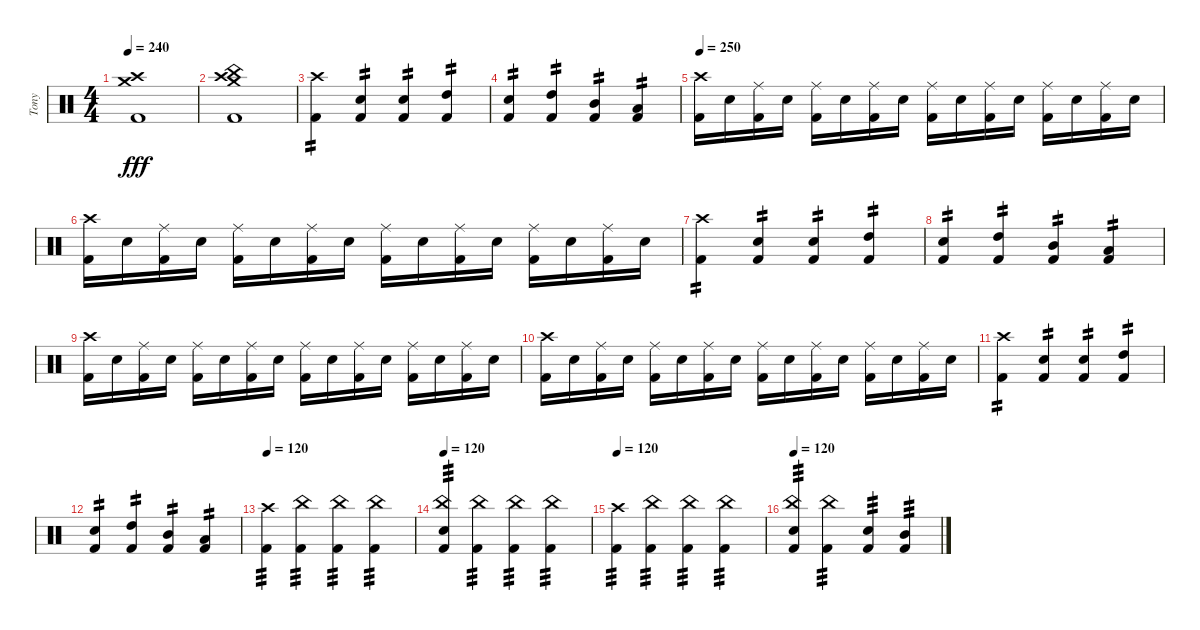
\track ("Tony" "Tony") {instrument percussion}
\staff {score}
\articulation defaults
\ts (4 4)
\tempo 240
\clef neutral
\ks c
("Crash high (hit)" "Crash medium (hit)" "Kick (hit) 2").1{dy fff} |
("Crash high (hit)" "China (hit)" "Crash medium (hit)" "Kick (hit) 2").1 |
("Crash high (hit)" "Kick (hit) 2").4{tp 2} ("Snare (hit) 2" "Kick (hit) 2").4{tp 2} ("Snare (hit) 2" "Kick (hit) 2").4{tp 2} ("High Tom (hit)" "Kick (hit) 2").4{tp 2} |
("Snare (hit) 2" "Kick (hit) 2").4{tp 2} ("High Tom (hit)" "Kick (hit) 2").4{tp 2} ("Mid Tom (hit)" "Kick (hit) 2").4{tp 2} ("Low Tom (hit)" "Kick (hit) 2").4{tp 2} |
\tempo 250
("Crash high (hit)" "Kick (hit) 2").16 "Snare (hit) 2".16 ("Ride (middle)" "Kick (hit) 2").16 "Snare (hit) 2".16 ("Ride (middle)" "Kick (hit) 2").16 "Snare (hit) 2".16 ("Ride (middle)" "Kick (hit) 2").16 "Snare (hit) 2".16 ("Ride (middle)" "Kick (hit) 2").16 "Snare (hit) 2".16 ("Ride (middle)" "Kick (hit) 2").16 "Snare (hit) 2".16 ("Ride (middle)" "Kick (hit) 2").16 "Snare (hit) 2".16 ("Ride (middle)" "Kick (hit) 2").16 "Snare (hit) 2".16 |
("Crash high (hit)" "Kick (hit) 2").16 "Snare (hit) 2".16 ("Ride (middle)" "Kick (hit) 2").16 "Snare (hit) 2".16 ("Ride (middle)" "Kick (hit) 2").16 "Snare (hit) 2".16 ("Ride (middle)" "Kick (hit) 2").16 "Snare (hit) 2".16 ("Ride (middle)" "Kick (hit) 2").16 "Snare (hit) 2".16 ("Ride (middle)" "Kick (hit) 2").16 "Snare (hit) 2".16 ("Ride (middle)" "Kick (hit) 2").16 "Snare (hit) 2".16 ("Ride (middle)" "Kick (hit) 2").16 "Snare (hit) 2".16 |
("Crash high (hit)" "Kick (hit) 2").4{tp 2} ("Snare (hit) 2" "Kick (hit) 2").4{tp 2} ("Snare (hit) 2" "Kick (hit) 2").4{tp 2} ("High Tom (hit)" "Kick (hit) 2").4{tp 2} |
("Snare (hit) 2" "Kick (hit) 2").4{tp 2} ("High Tom (hit)" "Kick (hit) 2").4{tp 2} ("Mid Tom (hit)" "Kick (hit) 2").4{tp 2} ("Low Tom (hit)" "Kick (hit) 2").4{tp 2} |
("Crash high (hit)" "Kick (hit) 2").16 "Snare (hit) 2".16 ("Ride (middle)" "Kick (hit) 2").16 "Snare (hit) 2".16 ("Ride (middle)" "Kick (hit) 2").16 "Snare (hit) 2".16 ("Ride (middle)" "Kick (hit) 2").16 "Snare (hit) 2".16 ("Ride (middle)" "Kick (hit) 2").16 "Snare (hit) 2".16 ("Ride (middle)" "Kick (hit) 2").16 "Snare (hit) 2".16 ("Ride (middle)" "Kick (hit) 2").16 "Snare (hit) 2".16 ("Ride (middle)" "Kick (hit) 2").16 "Snare (hit) 2".16 |
("Crash high (hit)" "Kick (hit) 2").16 "Snare (hit) 2".16 ("Ride (middle)" "Kick (hit) 2").16 "Snare (hit) 2".16 ("Ride (middle)" "Kick (hit) 2").16 "Snare (hit) 2".16 ("Ride (middle)" "Kick (hit) 2").16 "Snare (hit) 2".16 ("Ride (middle)" "Kick (hit) 2").16 "Snare (hit) 2".16 ("Ride (middle)" "Kick (hit) 2").16 "Snare (hit) 2".16 ("Ride (middle)" "Kick (hit) 2").16 "Snare (hit) 2".16 ("Ride (middle)" "Kick (hit) 2").16 "Snare (hit) 2".16 |
("Crash high (hit)" "Kick (hit) 2").4{tp 2} ("Snare (hit) 2" "Kick (hit) 2").4{tp 2} ("Snare (hit) 2" "Kick (hit) 2").4{tp 2} ("High Tom (hit)" "Kick (hit) 2").4{tp 2} |
("Snare (hit) 2" "Kick (hit) 2").4{tp 2} ("High Tom (hit)" "Kick (hit) 2").4{tp 2} ("Mid Tom (hit)" "Kick (hit) 2").4{tp 2} ("Low Tom (hit)" "Kick (hit) 2").4{tp 2} |
\tempo 120
("Crash high (hit)" "Kick (hit) 2").4{tp 3} ("China (hit)" "Kick (hit) 2").4{tp 3} ("China (hit)" "Kick (hit) 2").4{tp 3} ("China (hit)" "Kick (hit) 2").4{tp 3} |
\tempo 120
("China (hit)" "Snare (hit) 2" "Kick (hit) 2").4{tp 3} ("China (hit)" "Kick (hit) 2").4{tp 3} ("China (hit)" "Kick (hit) 2").4{tp 3} ("China (hit)" "Kick (hit) 2").4{tp 3} |
\tempo 120
("Crash high (hit)" "Kick (hit) 2").4{tp 3} ("China (hit)" "Kick (hit) 2").4{tp 3} ("China (hit)" "Kick (hit) 2").4{tp 3} ("China (hit)" "Kick (hit) 2").4{tp 3} |
\tempo 120
("China (hit)" "Snare (hit) 2" "Kick (hit) 2").4{tp 3} ("China (hit)" "Kick (hit) 2").4{tp 3} ("Snare (hit) 2" "Kick (hit) 2").4{tp 3} ("Mid Tom (hit)" "Kick (hit) 2").4{tp 3}
